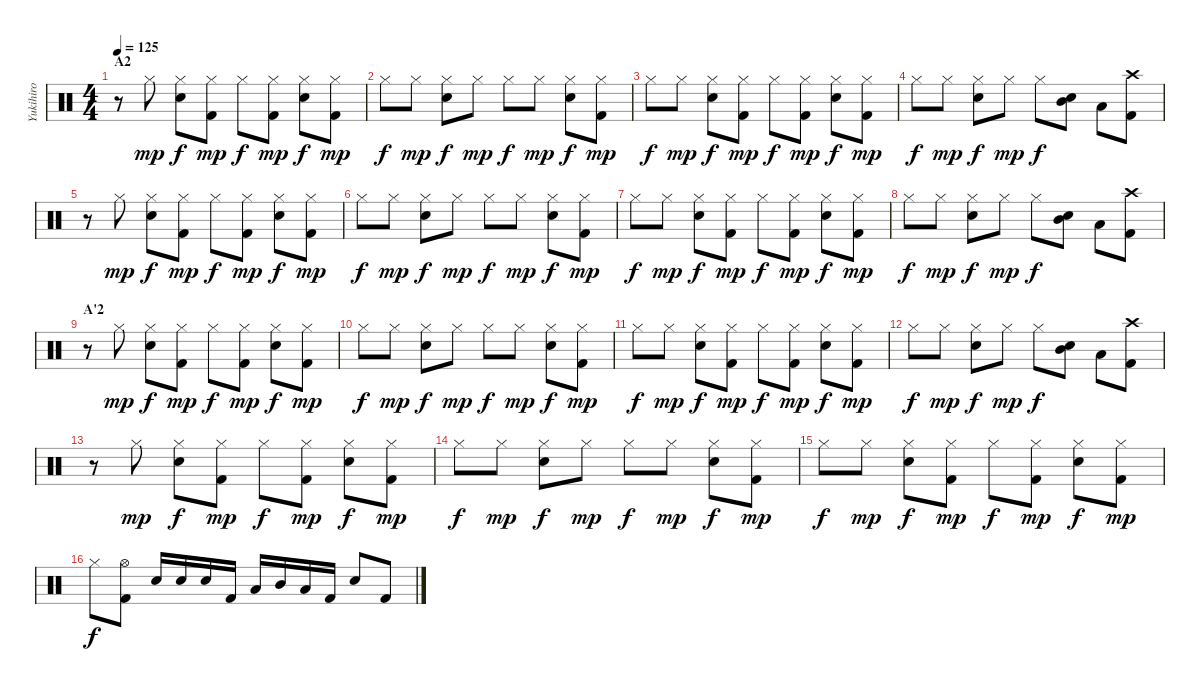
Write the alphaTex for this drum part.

\track ("Yukihiro" "Yukihiro") {instrument percussion}
\staff {score}
\articulation defaults
\ts (4 4)
\section ("" "A2")
\tempo 125
\clef neutral
\ks c
r.8{dy f} "Hi-Hat (closed)".8{dy mp} ("Hi-Hat (closed)" "Electric Snare (hit)").8{dy f} ("Hi-Hat (closed)" "Kick (hit) 2").8{dy mp} "Hi-Hat (closed)".8{dy f} ("Hi-Hat (closed)" "Kick (hit) 2").8{dy mp} ("Hi-Hat (closed)" "Electric Snare (hit)").8{dy f} ("Hi-Hat (closed)" "Kick (hit) 2").8{dy mp} |
"Hi-Hat (closed)".8{dy f} "Hi-Hat (closed)".8{dy mp} ("Hi-Hat (closed)" "Electric Snare (hit)").8{dy f} "Hi-Hat (closed)".8{dy mp} "Hi-Hat (closed)".8{dy f} "Hi-Hat (closed)".8{dy mp} ("Hi-Hat (closed)" "Electric Snare (hit)").8{dy f} ("Hi-Hat (closed)" "Kick (hit) 2").8{dy mp} |
"Hi-Hat (closed)".8{dy f} "Hi-Hat (closed)".8{dy mp} ("Hi-Hat (closed)" "Electric Snare (hit)").8{dy f} ("Hi-Hat (closed)" "Kick (hit) 2").8{dy mp} "Hi-Hat (closed)".8{dy f} ("Hi-Hat (closed)" "Kick (hit) 2").8{dy mp} ("Hi-Hat (closed)" "Electric Snare (hit)").8{dy f} ("Hi-Hat (closed)" "Kick (hit) 2").8{dy mp} |
"Hi-Hat (closed)".8{dy f} "Hi-Hat (closed)".8{dy mp} ("Hi-Hat (closed)" "Electric Snare (hit)").8{dy f} "Hi-Hat (closed)".8{dy mp} "Hi-Hat (closed)".8{dy f} ("Electric Snare (hit)" "Mid Tom (hit)").8 "Low Tom (hit)".8 ("Crash high (hit)" "Kick (hit) 2").8 |
r.8 "Hi-Hat (closed)".8{dy mp} ("Hi-Hat (closed)" "Electric Snare (hit)").8{dy f} ("Hi-Hat (closed)" "Kick (hit) 2").8{dy mp} "Hi-Hat (closed)".8{dy f} ("Hi-Hat (closed)" "Kick (hit) 2").8{dy mp} ("Hi-Hat (closed)" "Electric Snare (hit)").8{dy f} ("Hi-Hat (closed)" "Kick (hit) 2").8{dy mp} |
"Hi-Hat (closed)".8{dy f} "Hi-Hat (closed)".8{dy mp} ("Hi-Hat (closed)" "Electric Snare (hit)").8{dy f} "Hi-Hat (closed)".8{dy mp} "Hi-Hat (closed)".8{dy f} "Hi-Hat (closed)".8{dy mp} ("Hi-Hat (closed)" "Electric Snare (hit)").8{dy f} ("Hi-Hat (closed)" "Kick (hit) 2").8{dy mp} |
"Hi-Hat (closed)".8{dy f} "Hi-Hat (closed)".8{dy mp} ("Hi-Hat (closed)" "Electric Snare (hit)").8{dy f} ("Hi-Hat (closed)" "Kick (hit) 2").8{dy mp} "Hi-Hat (closed)".8{dy f} ("Hi-Hat (closed)" "Kick (hit) 2").8{dy mp} ("Hi-Hat (closed)" "Electric Snare (hit)").8{dy f} ("Hi-Hat (closed)" "Kick (hit) 2").8{dy mp} |
"Hi-Hat (closed)".8{dy f} "Hi-Hat (closed)".8{dy mp} ("Hi-Hat (closed)" "Electric Snare (hit)").8{dy f} "Hi-Hat (closed)".8{dy mp} "Hi-Hat (closed)".8{dy f} ("Electric Snare (hit)" "Mid Tom (hit)").8 "Low Tom (hit)".8 ("Crash high (hit)" "Kick (hit) 2").8 |
\section ("" "A'2")
r.8 "Hi-Hat (closed)".8{dy mp} ("Hi-Hat (closed)" "Electric Snare (hit)").8{dy f} ("Hi-Hat (closed)" "Kick (hit) 2").8{dy mp} "Hi-Hat (closed)".8{dy f} ("Hi-Hat (closed)" "Kick (hit) 2").8{dy mp} ("Hi-Hat (closed)" "Electric Snare (hit)").8{dy f} ("Hi-Hat (closed)" "Kick (hit) 2").8{dy mp} |
"Hi-Hat (closed)".8{dy f} "Hi-Hat (closed)".8{dy mp} ("Hi-Hat (closed)" "Electric Snare (hit)").8{dy f} "Hi-Hat (closed)".8{dy mp} "Hi-Hat (closed)".8{dy f} "Hi-Hat (closed)".8{dy mp} ("Hi-Hat (closed)" "Electric Snare (hit)").8{dy f} ("Hi-Hat (closed)" "Kick (hit) 2").8{dy mp} |
"Hi-Hat (closed)".8{dy f} "Hi-Hat (closed)".8{dy mp} ("Hi-Hat (closed)" "Electric Snare (hit)").8{dy f} ("Hi-Hat (closed)" "Kick (hit) 2").8{dy mp} "Hi-Hat (closed)".8{dy f} ("Hi-Hat (closed)" "Kick (hit) 2").8{dy mp} ("Hi-Hat (closed)" "Electric Snare (hit)").8{dy f} ("Hi-Hat (closed)" "Kick (hit) 2").8{dy mp} |
"Hi-Hat (closed)".8{dy f} "Hi-Hat (closed)".8{dy mp} ("Hi-Hat (closed)" "Electric Snare (hit)").8{dy f} "Hi-Hat (closed)".8{dy mp} "Hi-Hat (closed)".8{dy f} ("Electric Snare (hit)" "Mid Tom (hit)").8 "Low Tom (hit)".8 ("Crash high (hit)" "Kick (hit) 2").8 |
r.8 "Hi-Hat (closed)".8{dy mp} ("Hi-Hat (closed)" "Electric Snare (hit)").8{dy f} ("Hi-Hat (closed)" "Kick (hit) 2").8{dy mp} "Hi-Hat (closed)".8{dy f} ("Hi-Hat (closed)" "Kick (hit) 2").8{dy mp} ("Hi-Hat (closed)" "Electric Snare (hit)").8{dy f} ("Hi-Hat (closed)" "Kick (hit) 2").8{dy mp} |
"Hi-Hat (closed)".8{dy f} "Hi-Hat (closed)".8{dy mp} ("Hi-Hat (closed)" "Electric Snare (hit)").8{dy f} "Hi-Hat (closed)".8{dy mp} "Hi-Hat (closed)".8{dy f} "Hi-Hat (closed)".8{dy mp} ("Hi-Hat (closed)" "Electric Snare (hit)").8{dy f} ("Hi-Hat (closed)" "Kick (hit) 2").8{dy mp} |
"Hi-Hat (closed)".8{dy f} "Hi-Hat (closed)".8{dy mp} ("Hi-Hat (closed)" "Electric Snare (hit)").8{dy f} ("Hi-Hat (closed)" "Kick (hit) 2").8{dy mp} "Hi-Hat (closed)".8{dy f} ("Hi-Hat (closed)" "Kick (hit) 2").8{dy mp} ("Hi-Hat (closed)" "Electric Snare (hit)").8{dy f} ("Hi-Hat (closed)" "Kick (hit) 2").8{dy mp} |
"Hi-Hat (closed)".8{dy f} ("Hi-Hat (open)" "Kick (hit) 2").8 "Electric Snare (hit)".16 "Electric Snare (hit)".16 "Electric Snare (hit)".16 "Kick (hit) 2".16 "Low Tom (hit)".16 "Mid Tom (hit)".16 "Low Tom (hit)".16 "Kick (hit) 2".16 "Electric Snare (hit)".8 "Kick (hit) 2".8
